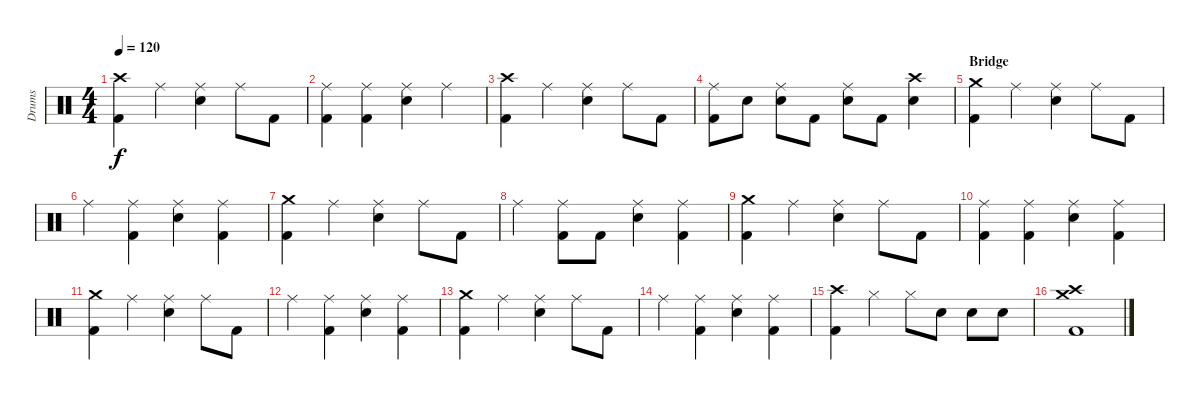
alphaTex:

\track ("Drums" "Drums") {instrument percussion}
\staff {score}
\articulation defaults
\ts (4 4)
\tempo 120
\clef neutral
\ks c
("Crash high (hit)" "Kick (hit) 2").4{dy f} "Ride (middle)".4 ("Ride (middle)" "Electric Snare (hit)").4 "Ride (middle)".8 "Kick (hit) 2".8 |
("Ride (middle)" "Kick (hit) 2").4 ("Ride (middle)" "Kick (hit) 2").4 ("Ride (middle)" "Electric Snare (hit)").4 "Ride (middle)".4 |
("Crash high (hit)" "Kick (hit) 2").4 "Ride (middle)".4 ("Ride (middle)" "Electric Snare (hit)").4 "Ride (middle)".8 "Kick (hit) 2".8 |
("Ride (middle)" "Kick (hit) 2").8 "Electric Snare (hit)".8 ("Ride (middle)" "Electric Snare (hit)").8 "Kick (hit) 2".8 ("Ride (middle)" "Electric Snare (hit)").8 "Kick (hit) 2".8 ("Crash high (hit)" "Electric Snare (hit)").4 |
\section ("" "Bridge")
("Crash medium (hit)" "Kick (hit) 2").4 "Ride (middle)".4 ("Ride (middle)" "Electric Snare (hit)").4 "Ride (middle)".8 "Kick (hit) 2".8 |
"Ride (middle)".4 ("Ride (middle)" "Kick (hit) 2").4 ("Ride (middle)" "Electric Snare (hit)").4 ("Ride (middle)" "Kick (hit) 2").4 |
("Crash medium (hit)" "Kick (hit) 2").4 "Ride (middle)".4 ("Ride (middle)" "Electric Snare (hit)").4 "Ride (middle)".8 "Kick (hit) 2".8 |
"Ride (middle)".4 ("Ride (middle)" "Kick (hit) 2").8 "Kick (hit) 2".8 ("Ride (middle)" "Electric Snare (hit)").4 ("Ride (middle)" "Kick (hit) 2").4 |
("Crash medium (hit)" "Kick (hit) 2").4 "Ride (middle)".4 ("Ride (middle)" "Electric Snare (hit)").4 "Ride (middle)".8 "Kick (hit) 2".8 |
("Ride (middle)" "Kick (hit) 2").4 ("Ride (middle)" "Kick (hit) 2").4 ("Ride (middle)" "Electric Snare (hit)").4 ("Ride (middle)" "Kick (hit) 2").4 |
("Crash medium (hit)" "Kick (hit) 2").4 "Ride (middle)".4 ("Ride (middle)" "Electric Snare (hit)").4 "Ride (middle)".8 "Kick (hit) 2".8 |
"Ride (middle)".4 ("Ride (middle)" "Kick (hit) 2").4 ("Ride (middle)" "Electric Snare (hit)").4 ("Ride (middle)" "Kick (hit) 2").4 |
("Crash medium (hit)" "Kick (hit) 2").4 "Ride (middle)".4 ("Ride (middle)" "Electric Snare (hit)").4 "Ride (middle)".8 "Kick (hit) 2".8 |
"Ride (middle)".4 ("Ride (middle)" "Kick (hit) 2").4 ("Ride (middle)" "Electric Snare (hit)").4 ("Ride (middle)" "Kick (hit) 2").4 |
("Crash high (hit)" "Kick (hit) 2").4 "Hi-Hat (closed)".4 "Hi-Hat (closed)".8 "Electric Snare (hit)".8 "Electric Snare (hit)".8 "Electric Snare (hit)".8 |
("Crash medium (hit)" "Crash high (hit)" "Kick (hit) 2").1
